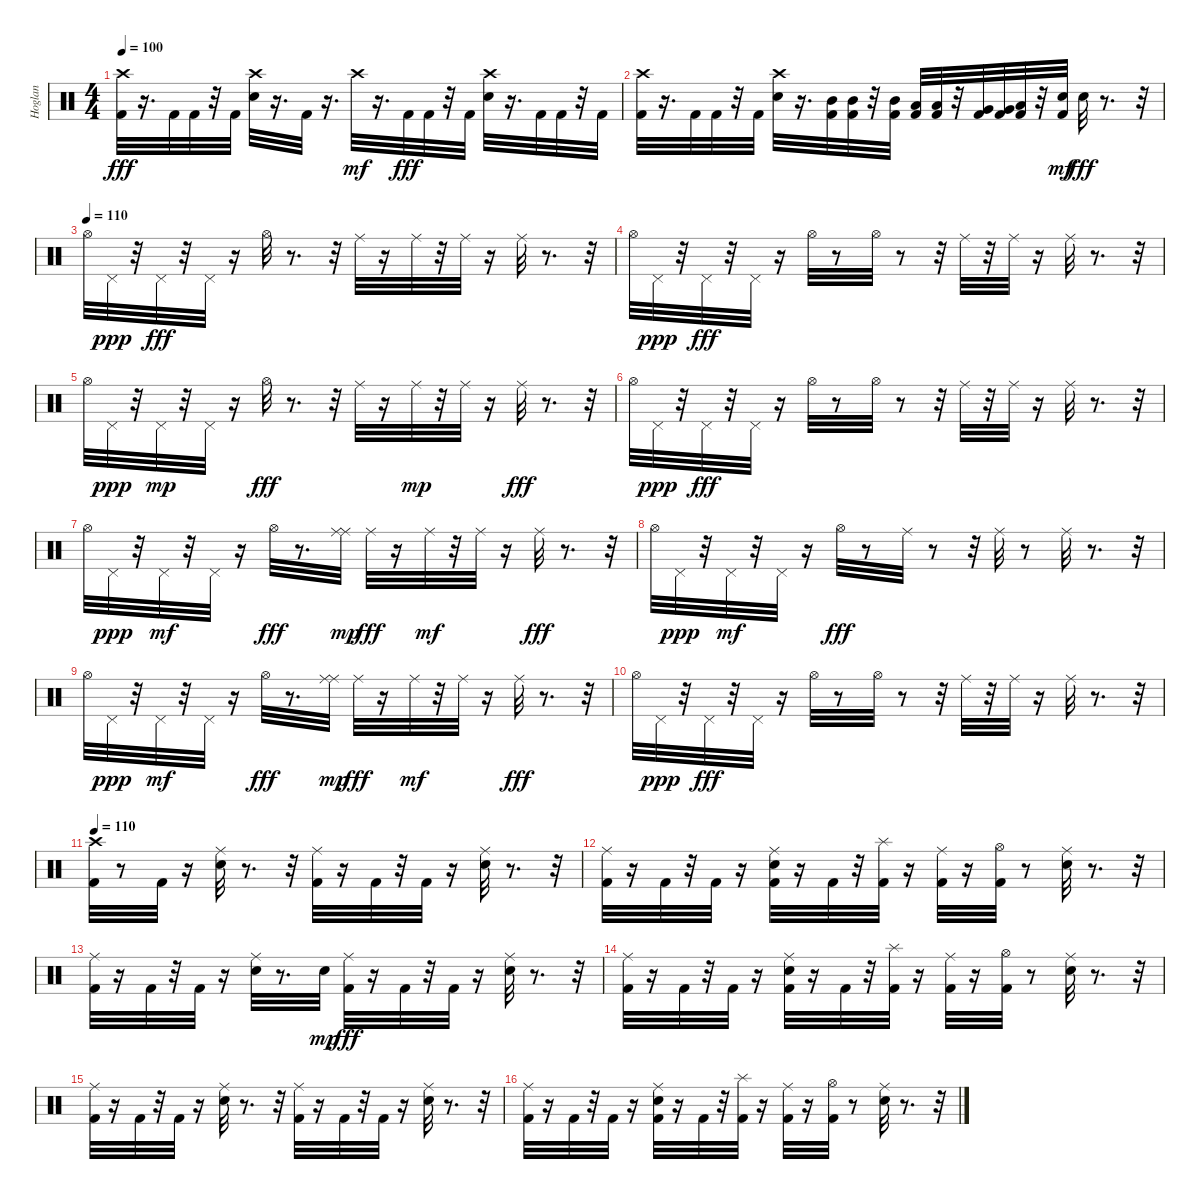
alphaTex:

\track ("Hoglan" "Hoglan") {instrument percussion}
\staff {score}
\articulation defaults
\ts (4 4)
\tempo 100
\clef neutral
\ks c
("Crash high (hit)" "Kick (hit) 2").32{dy fff} r.16{d} "Kick (hit) 2".32 "Kick (hit) 2".32 r.32 "Kick (hit) 2".32 ("Crash high (hit)" "Electric Snare (hit)").32 r.16{d} "Kick (hit) 2".32 r.16{d} "Crash high (hit)".32{dy mf} r.16{d} "Kick (hit) 2".32{dy fff} "Kick (hit) 2".32 r.32 "Kick (hit) 2".32 ("Crash high (hit)" "Electric Snare (hit)").32 r.16{d} "Kick (hit) 2".32 "Kick (hit) 2".32 r.32 "Kick (hit) 2".32 |
("Crash high (hit)" "Kick (hit) 2").32 r.16{d} "Kick (hit) 2".32 "Kick (hit) 2".32 r.32 "Kick (hit) 2".32 ("Crash high (hit)" "Electric Snare (hit)").32 r.16{d} ("Mid Tom (hit)" "Kick (hit) 2").32 ("Mid Tom (hit)" "Kick (hit) 2").32 r.32 ("Mid Tom (hit)" "Kick (hit) 2").32 ("Low Tom (hit)" "Kick (hit) 2").32 ("Low Tom (hit)" "Kick (hit) 2").32 r.32 ("Very Low Tom (hit)" "Kick (hit) 2").32 ("Very Low Tom (hit)" "Kick (hit) 2").32 ("Low Floor Tom (hit)" "Kick (hit) 2").32 r.32 ("Kick (hit) 2" "Electric Snare (hit)").32{dy mf} "Electric Snare (hit)".32{dy fff} r.8{d} r.32 |
\tempo 100
\tempo (110)
"Hi-Hat (open)".32 "Pedal Hi-Hat (hit)".32{dy ppp} r.32 "Pedal Hi-Hat (hit)".32{dy fff} r.32 "Pedal Hi-Hat (hit)".32 r.16 "Hi-Hat (open)".32 r.8{d} r.32 "Ride (middle)".32 r.16 "Ride (middle)".32 r.32 "Ride (middle)".32 r.16 "Ride (middle)".32 r.8{d} r.32 |
"Hi-Hat (open)".32 "Pedal Hi-Hat (hit)".32{dy ppp} r.32 "Pedal Hi-Hat (hit)".32{dy fff} r.32 "Pedal Hi-Hat (hit)".32 r.16 "Hi-Hat (open)".32 r.8 "Hi-Hat (open)".32 r.8 r.32 "Ride (middle)".32 r.32 "Ride (middle)".32 r.16 "Ride (middle)".32 r.8{d} r.32 |
"Hi-Hat (open)".32 "Pedal Hi-Hat (hit)".32{dy ppp} r.32 "Pedal Hi-Hat (hit)".32{dy mp} r.32 "Pedal Hi-Hat (hit)".32 r.16 "Hi-Hat (open)".32{dy fff} r.8{d} r.32 "Ride (middle)".32 r.16 "Ride (middle)".32{dy mp} r.32 "Ride (middle)".32 r.16 "Ride (middle)".32{dy fff} r.8{d} r.32 |
"Hi-Hat (open)".32 "Pedal Hi-Hat (hit)".32{dy ppp} r.32 "Pedal Hi-Hat (hit)".32{dy fff} r.32 "Pedal Hi-Hat (hit)".32 r.16 "Hi-Hat (open)".32 r.8 "Hi-Hat (open)".32 r.8 r.32 "Ride (middle)".32 r.32 "Ride (middle)".32 r.16 "Ride (middle)".32 r.8{d} r.32 |
"Hi-Hat (open)".32 "Pedal Hi-Hat (hit)".32{dy ppp} r.32 "Pedal Hi-Hat (hit)".32{dy mf} r.32 "Pedal Hi-Hat (hit)".32 r.16 "Hi-Hat (open)".32{dy fff} r.8{d} ("Ride (middle)" "Ride (middle)").32{dy mp} "Ride (middle)".32{dy fff} r.16 "Ride (middle)".32{dy mf} r.32 "Ride (middle)".32 r.16 "Ride (middle)".32{dy fff} r.8{d} r.32 |
"Hi-Hat (open)".32 "Pedal Hi-Hat (hit)".32{dy ppp} r.32 "Pedal Hi-Hat (hit)".32{dy mf} r.32 "Pedal Hi-Hat (hit)".32 r.16 "Hi-Hat (open)".32{dy fff} r.8 "Ride (middle)".32 r.8 r.32 "Ride (middle)".32 r.8 "Ride (middle)".32 r.8{d} r.32 |
"Hi-Hat (open)".32 "Pedal Hi-Hat (hit)".32{dy ppp} r.32 "Pedal Hi-Hat (hit)".32{dy mf} r.32 "Pedal Hi-Hat (hit)".32 r.16 "Hi-Hat (open)".32{dy fff} r.8{d} ("Ride (middle)" "Ride (middle)").32{dy mp} "Ride (middle)".32{dy fff} r.16 "Ride (middle)".32{dy mf} r.32 "Ride (middle)".32 r.16 "Ride (middle)".32{dy fff} r.8{d} r.32 |
"Hi-Hat (open)".32 "Pedal Hi-Hat (hit)".32{dy ppp} r.32 "Pedal Hi-Hat (hit)".32{dy fff} r.32 "Pedal Hi-Hat (hit)".32 r.16 "Hi-Hat (open)".32 r.8 "Hi-Hat (open)".32 r.8 r.32 "Ride (middle)".32 r.32 "Ride (middle)".32 r.16 "Ride (middle)".32 r.8{d} r.32 |
\tempo 100
\tempo 110
("Crash high (hit)" "Kick (hit) 2").32 r.8 "Kick (hit) 2".32 r.16 ("Electric Snare (hit)" "Ride (middle)").32 r.8{d} r.32 ("Kick (hit) 2" "Ride (middle)").32 r.16 "Kick (hit) 2".32 r.32 "Kick (hit) 2".32 r.16 ("Electric Snare (hit)" "Ride (middle)").32 r.8{d} r.32 |
("Kick (hit) 2" "Ride (middle)").32 r.16 "Kick (hit) 2".32 r.32 "Kick (hit) 2".32 r.16 ("Electric Snare (hit)" "Kick (hit) 2" "Ride (middle)").32 r.16 "Kick (hit) 2".32 r.32 ("Kick (hit) 2" "Splash (hit)").32 r.16 ("Kick (hit) 2" "Ride (middle)").32 r.16 ("Hi-Hat (open)" "Kick (hit) 2").32 r.8 ("Electric Snare (hit)" "Ride (middle)").32 r.8{d} r.32 |
("Kick (hit) 2" "Ride (middle)").32 r.16 "Kick (hit) 2".32 r.32 "Kick (hit) 2".32 r.16 ("Electric Snare (hit)" "Ride (middle)").32 r.8{d} "Electric Snare (hit)".32{dy mp} ("Kick (hit) 2" "Ride (middle)").32{dy fff} r.16 "Kick (hit) 2".32 r.32 "Kick (hit) 2".32 r.16 ("Electric Snare (hit)" "Ride (middle)").32 r.8{d} r.32 |
("Kick (hit) 2" "Ride (middle)").32 r.16 "Kick (hit) 2".32 r.32 "Kick (hit) 2".32 r.16 ("Electric Snare (hit)" "Kick (hit) 2" "Ride (middle)").32 r.16 "Kick (hit) 2".32 r.32 ("Kick (hit) 2" "Splash (hit)").32 r.16 ("Kick (hit) 2" "Ride (middle)").32 r.16 ("Hi-Hat (open)" "Kick (hit) 2").32 r.8 ("Electric Snare (hit)" "Ride (middle)").32 r.8{d} r.32 |
("Kick (hit) 2" "Ride (middle)").32 r.16 "Kick (hit) 2".32 r.32 "Kick (hit) 2".32 r.16 ("Electric Snare (hit)" "Ride (middle)").32 r.8{d} r.32 ("Kick (hit) 2" "Ride (middle)").32 r.16 "Kick (hit) 2".32 r.32 "Kick (hit) 2".32 r.16 ("Electric Snare (hit)" "Ride (middle)").32 r.8{d} r.32 |
("Kick (hit) 2" "Ride (middle)").32 r.16 "Kick (hit) 2".32 r.32 "Kick (hit) 2".32 r.16 ("Electric Snare (hit)" "Kick (hit) 2" "Ride (middle)").32 r.16 "Kick (hit) 2".32 r.32 ("Kick (hit) 2" "Splash (hit)").32 r.16 ("Kick (hit) 2" "Ride (middle)").32 r.16 ("Hi-Hat (open)" "Kick (hit) 2").32 r.8 ("Electric Snare (hit)" "Ride (middle)").32 r.8{d} r.32
